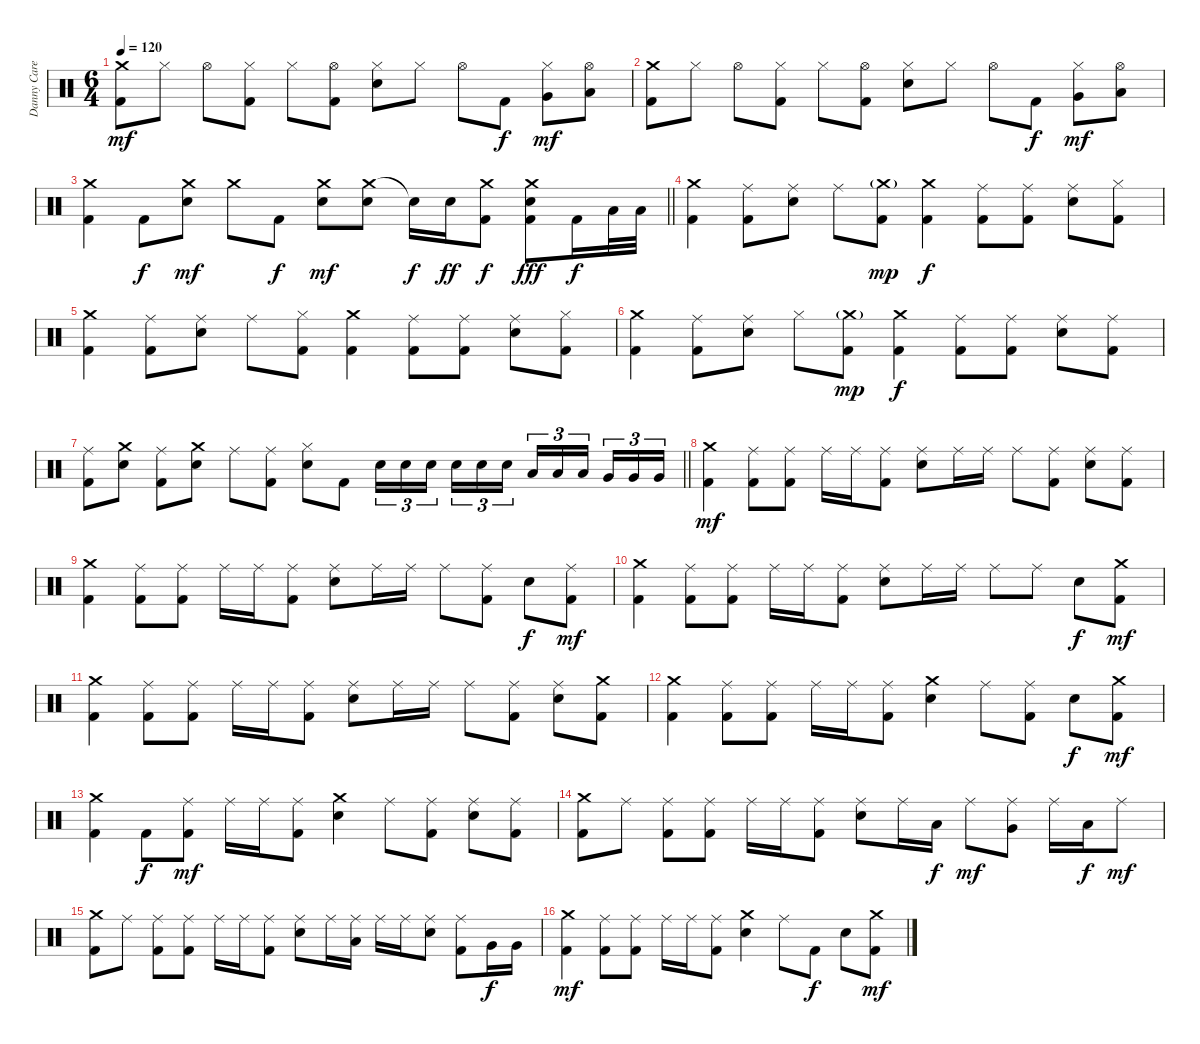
\track ("Danny Carey" "Danny Care") {instrument percussion}
\staff {score}
\articulation defaults
\ts (6 4)
\tempo 120
\clef neutral
\ks c
("Crash medium (hit)" "Kick (hit) 2").8{dy mf} "Hi-Hat (closed)".8 "Hi-Hat (open)".8 ("Hi-Hat (closed)" "Kick (hit) 2").8 "Hi-Hat (closed)".8 ("Hi-Hat (open)" "Kick (hit) 2").8 ("Hi-Hat (closed)" "Snare (hit) 2").8 "Hi-Hat (closed)".8 "Hi-Hat (open)".8 "Kick (hit) 2".8{dy f} ("Hi-Hat (closed)" "Very Low Tom (hit)").8{dy mf} ("Hi-Hat (open)" "Low Floor Tom (hit)").8 |
("Crash medium (hit)" "Kick (hit) 2").8 "Hi-Hat (closed)".8 "Hi-Hat (open)".8 ("Hi-Hat (closed)" "Kick (hit) 2").8 "Hi-Hat (closed)".8 ("Hi-Hat (open)" "Kick (hit) 2").8 ("Hi-Hat (closed)" "Snare (hit) 2").8 "Hi-Hat (closed)".8 "Hi-Hat (open)".8 "Kick (hit) 2".8{dy f} ("Hi-Hat (closed)" "Very Low Tom (hit)").8{dy mf} ("Hi-Hat (open)" "Low Floor Tom (hit)").8 |
\barLineRight lightlight
("Crash medium (hit)" "Kick (hit) 2").4 "Kick (hit) 2".8{dy f} ("Crash medium (hit)" "Snare (hit) 2").8{dy mf} "Crash medium (hit)".8 "Kick (hit) 2".8{dy f} ("Crash medium (hit)" "Snare (hit) 2").8{dy mf} ("Crash medium (hit)" "Snare (hit) 2").8 "Snare (hit)"{t}.16{dy f} "Snare (hit) 2".16{dy ff} ("Crash medium (hit)" "Kick (hit) 2").8{dy f} ("Crash medium (hit)" "Snare (hit) 2" "Kick (hit) 2").8{dy fff} "Kick (hit) 2".16{dy f} "Low Tom (hit)".32 "Low Tom (hit)".32 |
\section ("" "")
("Crash medium (hit)" "Kick (hit) 2").4 ("Ride (middle)" "Kick (hit) 2").8 ("Ride (middle)" "Snare (hit) 2").8 "Ride (middle)".8 ("Crash medium (hit)"{g} "Kick (hit) 2").8{dy mp} ("Crash medium (hit)" "Kick (hit) 2").4{dy f} ("Ride (middle)" "Kick (hit) 2").8 ("Ride (middle)" "Kick (hit) 2").8 ("Ride (middle)" "Snare (hit) 2").8 ("Hi-Hat (closed)" "Kick (hit) 2").8 |
("Crash medium (hit)" "Kick (hit) 2").4 ("Ride (middle)" "Kick (hit) 2").8 ("Ride (middle)" "Snare (hit) 2").8 "Ride (middle)".8 ("Hi-Hat (closed)" "Kick (hit) 2").8 ("Crash medium (hit)" "Kick (hit) 2").4 ("Ride (middle)" "Kick (hit) 2").8 ("Ride (middle)" "Kick (hit) 2").8 ("Ride (middle)" "Snare (hit) 2").8 ("Hi-Hat (closed)" "Kick (hit) 2").8 |
("Crash medium (hit)" "Kick (hit) 2").4 ("Ride (middle)" "Kick (hit) 2").8 ("Ride (middle)" "Snare (hit) 2").8 "Hi-Hat (closed)".8 ("Crash medium (hit)"{g} "Kick (hit) 2").8{dy mp} ("Crash medium (hit)" "Kick (hit) 2").4{dy f} ("Ride (middle)" "Kick (hit) 2").8 ("Ride (middle)" "Kick (hit) 2").8 ("Ride (middle)" "Snare (hit) 2").8 ("Ride (middle)" "Kick (hit) 2").8 |
\barLineRight lightlight
("Ride (middle)" "Kick (hit) 2").8 ("Crash medium (hit)" "Snare (hit) 2").8 ("Ride (middle)" "Kick (hit) 2").8 ("Crash medium (hit)" "Snare (hit) 2").8 "Ride (middle)".8 ("Ride (middle)" "Kick (hit) 2").8 ("Hi-Hat (closed)" "Snare (hit) 2").8 "Kick (hit) 2".8 "Snare (hit) 2".16{tu (3 2)} "Snare (hit) 2".16{tu (3 2)} "Snare (hit) 2".16{tu (3 2) beam splitsecondary} "Snare (hit) 2".16{tu (3 2)} "Snare (hit) 2".16{tu (3 2)} "Snare (hit) 2".16{tu (3 2) beam splitsecondary} "Low Tom (hit)".16{tu (3 2)} "Low Tom (hit)".16{tu (3 2)} "Low Tom (hit)".16{tu (3 2) beam splitsecondary} "Very Low Tom (hit)".16{tu (3 2)} "Very Low Tom (hit)".16{tu (3 2)} "Very Low Tom (hit)".16{tu (3 2)} |
\section ("" "")
("Crash medium (hit)" "Kick (hit) 2").4{dy mf} ("Ride (middle)" "Kick (hit) 2").8 ("Ride (middle)" "Kick (hit) 2").8 "Ride (middle)".16 "Ride (middle)".16 ("Ride (middle)" "Kick (hit) 2").8 ("Ride (middle)" "Snare (hit) 2").8 "Ride (middle)".16 "Ride (middle)".16 "Ride (middle)".8 ("Ride (middle)" "Kick (hit) 2").8 ("Ride (middle)" "Snare (hit) 2").8 ("Ride (middle)" "Kick (hit) 2").8 |
("Crash medium (hit)" "Kick (hit) 2").4 ("Ride (middle)" "Kick (hit) 2").8 ("Ride (middle)" "Kick (hit) 2").8 "Ride (middle)".16 "Ride (middle)".16 ("Ride (middle)" "Kick (hit) 2").8 ("Ride (middle)" "Snare (hit) 2").8 "Ride (middle)".16 "Ride (middle)".16 "Ride (middle)".8 ("Ride (middle)" "Kick (hit) 2").8 "Snare (hit) 2".8{dy f} ("Ride (middle)" "Kick (hit) 2").8{dy mf} |
("Crash medium (hit)" "Kick (hit) 2").4 ("Ride (middle)" "Kick (hit) 2").8 ("Ride (middle)" "Kick (hit) 2").8 "Ride (middle)".16 "Ride (middle)".16 ("Ride (middle)" "Kick (hit) 2").8 ("Ride (middle)" "Snare (hit) 2").8 "Ride (middle)".16 "Ride (middle)".16 "Ride (middle)".8 "Ride (middle)".8 "Snare (hit) 2".8{dy f} ("Crash medium (hit)" "Kick (hit) 2").8{dy mf} |
("Crash medium (hit)" "Kick (hit) 2").4 ("Ride (middle)" "Kick (hit) 2").8 ("Ride (middle)" "Kick (hit) 2").8 "Ride (middle)".16 "Ride (middle)".16 ("Ride (middle)" "Kick (hit) 2").8 ("Ride (middle)" "Snare (hit) 2").8 "Ride (middle)".16 "Ride (middle)".16 "Ride (middle)".8 ("Ride (middle)" "Kick (hit) 2").8 ("Ride (middle)" "Snare (hit) 2").8 ("Crash medium (hit)" "Kick (hit) 2").8 |
("Crash medium (hit)" "Kick (hit) 2").4 ("Ride (middle)" "Kick (hit) 2").8 ("Ride (middle)" "Kick (hit) 2").8 "Ride (middle)".16 "Ride (middle)".16 ("Ride (middle)" "Kick (hit) 2").8 ("Crash medium (hit)" "Snare (hit) 2").4 "Ride (middle)".8 ("Ride (middle)" "Kick (hit) 2").8 "Snare (hit) 2".8{dy f} ("Crash medium (hit)" "Kick (hit) 2").8{dy mf} |
("Crash medium (hit)" "Kick (hit) 2").4 "Kick (hit) 2".8{dy f} ("Ride (middle)" "Kick (hit) 2").8{dy mf} "Ride (middle)".16 "Ride (middle)".16 ("Ride (middle)" "Kick (hit) 2").8 ("Crash medium (hit)" "Snare (hit) 2").4 "Ride (middle)".8 ("Ride (middle)" "Kick (hit) 2").8 ("Ride (middle)" "Snare (hit) 2").8 ("Ride (middle)" "Kick (hit) 2").8 |
("Crash medium (hit)" "Kick (hit) 2").8 "Ride (middle)".8 ("Ride (middle)" "Kick (hit) 2").8 ("Ride (middle)" "Kick (hit) 2").8 "Ride (middle)".16 "Ride (middle)".16 ("Ride (middle)" "Kick (hit) 2").8 ("Ride (middle)" "Snare (hit) 2").8 "Ride (middle)".16 "Low Tom (hit)".16{dy f} "Ride (middle)".8{dy mf} ("Ride (middle)" "Very Low Tom (hit)").8 "Ride (middle)".16 "Low Floor Tom (hit)".16{dy f} "Ride (middle)".8{dy mf} |
("Crash medium (hit)" "Kick (hit) 2").8 "Ride (middle)".8 ("Ride (middle)" "Kick (hit) 2").8 ("Ride (middle)" "Kick (hit) 2").8 "Ride (middle)".16 "Ride (middle)".16 ("Ride (middle)" "Kick (hit) 2").8 ("Ride (middle)" "Snare (hit) 2").8 "Ride (middle)".16 ("Ride (middle)" "Low Floor Tom (hit)").16 "Ride (middle)".16 "Ride (middle)".16 ("Ride (middle)" "Snare (hit) 2").8 ("Ride (middle)" "Kick (hit) 2").8 "Very Low Tom (hit)".16{dy f} "Very Low Tom (hit)".16 |
("Crash medium (hit)" "Kick (hit) 2").4{dy mf} ("Ride (middle)" "Kick (hit) 2").8 ("Ride (middle)" "Kick (hit) 2").8 "Ride (middle)".16 "Ride (middle)".16 ("Ride (middle)" "Kick (hit) 2").8 ("Crash medium (hit)" "Snare (hit) 2").4 "Ride (middle)".8 "Kick (hit) 2".8{dy f} "Snare (hit) 2".8 ("Crash medium (hit)" "Kick (hit) 2").8{dy mf}
